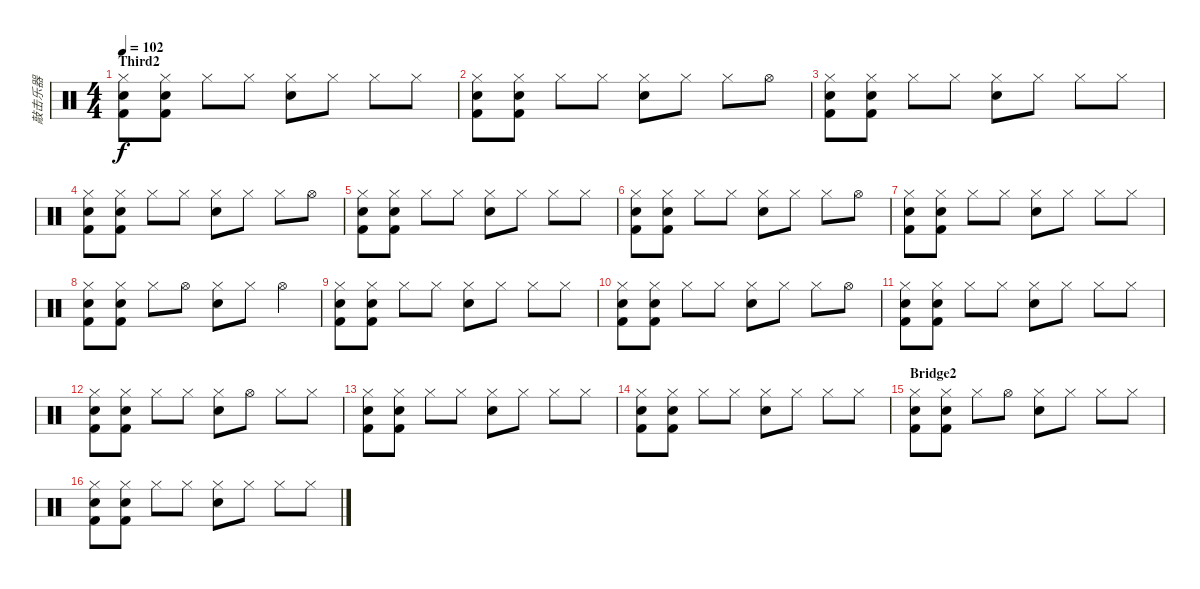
\track ("敲击乐器" "敲击乐器") {instrument percussion}
\staff {score}
\articulation defaults
\ts (4 4)
\section ("" "Third2")
\tempo 102
\clef neutral
\ks c
("Hi-Hat (closed)" "Kick (hit) 2" "Snare (hit)").8{dy f} ("Hi-Hat (closed)" "Kick (hit) 2" "Snare (hit)").8 "Hi-Hat (closed)".8 "Hi-Hat (closed)".8 ("Hi-Hat (closed)" "Metronome (bell)").8 "Hi-Hat (closed)".8 "Hi-Hat (closed)".8 "Hi-Hat (closed)".8 |
("Hi-Hat (closed)" "Kick (hit) 2" "Snare (hit)").8 ("Hi-Hat (closed)" "Kick (hit) 2" "Snare (hit)").8 "Hi-Hat (closed)".8 "Hi-Hat (closed)".8 ("Hi-Hat (closed)" "Metronome (bell)").8 "Hi-Hat (closed)".8 "Hi-Hat (closed)".8 "Hi-Hat (open)".8 |
("Hi-Hat (closed)" "Kick (hit) 2" "Snare (hit)").8 ("Hi-Hat (closed)" "Kick (hit) 2" "Snare (hit)").8 "Hi-Hat (closed)".8 "Hi-Hat (closed)".8 ("Hi-Hat (closed)" "Metronome (bell)").8 "Hi-Hat (closed)".8 "Hi-Hat (closed)".8 "Hi-Hat (closed)".8 |
("Hi-Hat (closed)" "Kick (hit) 2" "Snare (hit)").8 ("Hi-Hat (closed)" "Kick (hit) 2" "Snare (hit)").8 "Hi-Hat (closed)".8 "Hi-Hat (closed)".8 ("Hi-Hat (closed)" "Metronome (bell)").8 "Hi-Hat (closed)".8 "Hi-Hat (closed)".8 "Hi-Hat (open)".8 |
("Hi-Hat (closed)" "Kick (hit) 2" "Snare (hit)").8 ("Hi-Hat (closed)" "Kick (hit) 2" "Snare (hit)").8 "Hi-Hat (closed)".8 "Hi-Hat (closed)".8 ("Hi-Hat (closed)" "Metronome (bell)").8 "Hi-Hat (closed)".8 "Hi-Hat (closed)".8 "Hi-Hat (closed)".8 |
("Hi-Hat (closed)" "Kick (hit) 2" "Snare (hit)").8 ("Hi-Hat (closed)" "Kick (hit) 2" "Snare (hit)").8 "Hi-Hat (closed)".8 "Hi-Hat (closed)".8 ("Hi-Hat (closed)" "Metronome (bell)").8 "Hi-Hat (closed)".8 "Hi-Hat (closed)".8 "Hi-Hat (open)".8 |
("Hi-Hat (closed)" "Kick (hit) 2" "Snare (hit)").8 ("Hi-Hat (closed)" "Kick (hit) 2" "Snare (hit)").8 "Hi-Hat (closed)".8 "Hi-Hat (closed)".8 ("Hi-Hat (closed)" "Metronome (bell)").8 "Hi-Hat (closed)".8 "Hi-Hat (closed)".8 "Hi-Hat (closed)".8 |
("Hi-Hat (closed)" "Kick (hit) 2" "Snare (hit)").8 ("Hi-Hat (closed)" "Kick (hit) 2" "Snare (hit)").8 "Hi-Hat (closed)".8 "Hi-Hat (open)".8 ("Hi-Hat (closed)" "Metronome (bell)").8 "Hi-Hat (closed)".8 "Hi-Hat (open)".4 |
("Hi-Hat (closed)" "Kick (hit) 2" "Snare (hit)").8 ("Hi-Hat (closed)" "Kick (hit) 2" "Snare (hit)").8 "Hi-Hat (closed)".8 "Hi-Hat (closed)".8 ("Hi-Hat (closed)" "Metronome (bell)").8 "Hi-Hat (closed)".8 "Hi-Hat (closed)".8 "Hi-Hat (closed)".8 |
("Hi-Hat (closed)" "Kick (hit) 2" "Snare (hit)").8 ("Hi-Hat (closed)" "Kick (hit) 2" "Snare (hit)").8 "Hi-Hat (closed)".8 "Hi-Hat (closed)".8 ("Hi-Hat (closed)" "Metronome (bell)").8 "Hi-Hat (closed)".8 "Hi-Hat (closed)".8 "Hi-Hat (open)".8 |
("Hi-Hat (closed)" "Kick (hit) 2" "Snare (hit)").8 ("Hi-Hat (closed)" "Kick (hit) 2" "Snare (hit)").8 "Hi-Hat (closed)".8 "Hi-Hat (closed)".8 ("Hi-Hat (closed)" "Metronome (bell)").8 "Hi-Hat (closed)".8 "Hi-Hat (closed)".8 "Hi-Hat (closed)".8 |
("Hi-Hat (closed)" "Kick (hit) 2" "Snare (hit)").8 ("Hi-Hat (closed)" "Kick (hit) 2" "Snare (hit)").8 "Hi-Hat (closed)".8 "Hi-Hat (closed)".8 ("Hi-Hat (closed)" "Metronome (bell)").8 "Hi-Hat (open)".8 "Hi-Hat (closed)".8 "Hi-Hat (closed)".8 |
("Hi-Hat (closed)" "Kick (hit) 2" "Snare (hit)").8 ("Hi-Hat (closed)" "Kick (hit) 2" "Snare (hit)").8 "Hi-Hat (closed)".8 "Hi-Hat (closed)".8 ("Hi-Hat (closed)" "Metronome (bell)").8 "Hi-Hat (closed)".8 "Hi-Hat (closed)".8 "Hi-Hat (closed)".8 |
("Hi-Hat (closed)" "Kick (hit) 2" "Snare (hit)").8 ("Hi-Hat (closed)" "Kick (hit) 2" "Snare (hit)").8 "Hi-Hat (closed)".8 "Hi-Hat (closed)".8 ("Hi-Hat (closed)" "Metronome (bell)").8 "Hi-Hat (closed)".8 "Hi-Hat (closed)".8 "Hi-Hat (closed)".8 |
\section ("" "Bridge2")
("Hi-Hat (closed)" "Kick (hit) 2" "Snare (hit)").8 ("Hi-Hat (closed)" "Kick (hit) 2" "Snare (hit)").8 "Hi-Hat (closed)".8 "Hi-Hat (open)".8 ("Hi-Hat (closed)" "Metronome (bell)").8 "Hi-Hat (closed)".8 "Hi-Hat (closed)".8 "Hi-Hat (closed)".8 |
("Hi-Hat (closed)" "Kick (hit) 2" "Snare (hit)").8 ("Hi-Hat (closed)" "Kick (hit) 2" "Snare (hit)").8 "Hi-Hat (closed)".8 "Hi-Hat (closed)".8 ("Hi-Hat (closed)" "Metronome (bell)").8 "Hi-Hat (closed)".8 "Hi-Hat (closed)".8 "Hi-Hat (closed)".8
